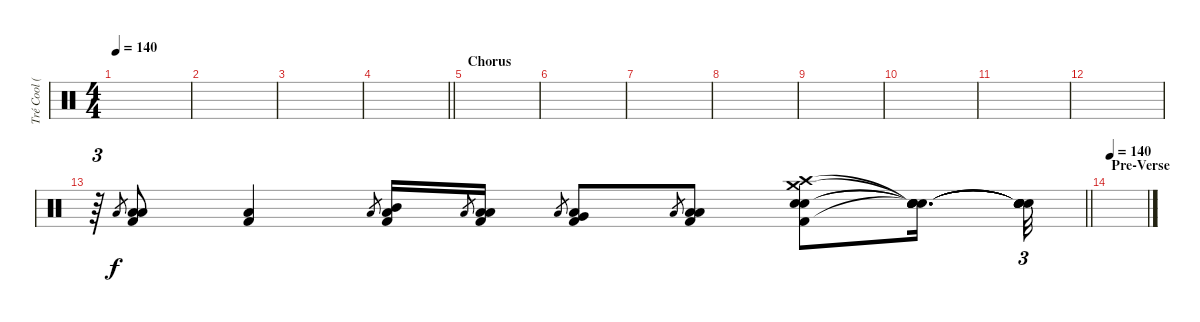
\track ("Tré Cool (Bongos)" "Tré Cool (") {instrument percussion}
\staff {score}
\articulation defaults
\ts (4 4)
\tempo 140
\clef neutral
\ks c
|
|
|
\barLineRight lightlight
|
\section ("" "Chorus")
|
|
|
|
|
|
|
|
\barLineRight lightlight
r.64{tu (3 2)} "Low Tom (hit)".8{gr} ("Low Tom (hit)" "Low Tom (hit)" "Kick (hit) 2").8 ("Low Floor Tom (hit)" "Kick (hit) 2").4 "Low Tom (hit)".8{gr} ("Mid Tom (hit)" "Low Tom (hit)" "Kick (hit) 2").16 "Low Tom (hit)".8{gr} ("Low Tom (hit)" "Low Tom (hit)" "Kick (hit) 2").16 "Low Tom (hit)".8{gr} ("Very Low Tom (hit)" "Low Tom (hit)" "Kick (hit) 2").8 "Low Tom (hit)".8{gr} ("Low Floor Tom (hit)" "Low Tom (hit)" "Kick (hit) 2").8 ("Crash high (hit)" "Electric Snare (hit)" "Electric Snare (hit)" "Crash medium (hit)" "Kick (hit) 2").8 ("Snare (hit)"{t} "Snare (hit)"{t} "Snare (hit)"{t} "Snare (hit)"{t} "Snare (hit)"{t}).16{d} ("Snare (hit)"{t} "Snare (hit)"{t} "Snare (hit)"{t} "Snare (hit)"{t} "Snare (hit)"{t}).32{tu (3 2)} |
\section ("" "Pre-Verse")
\tempo 140
